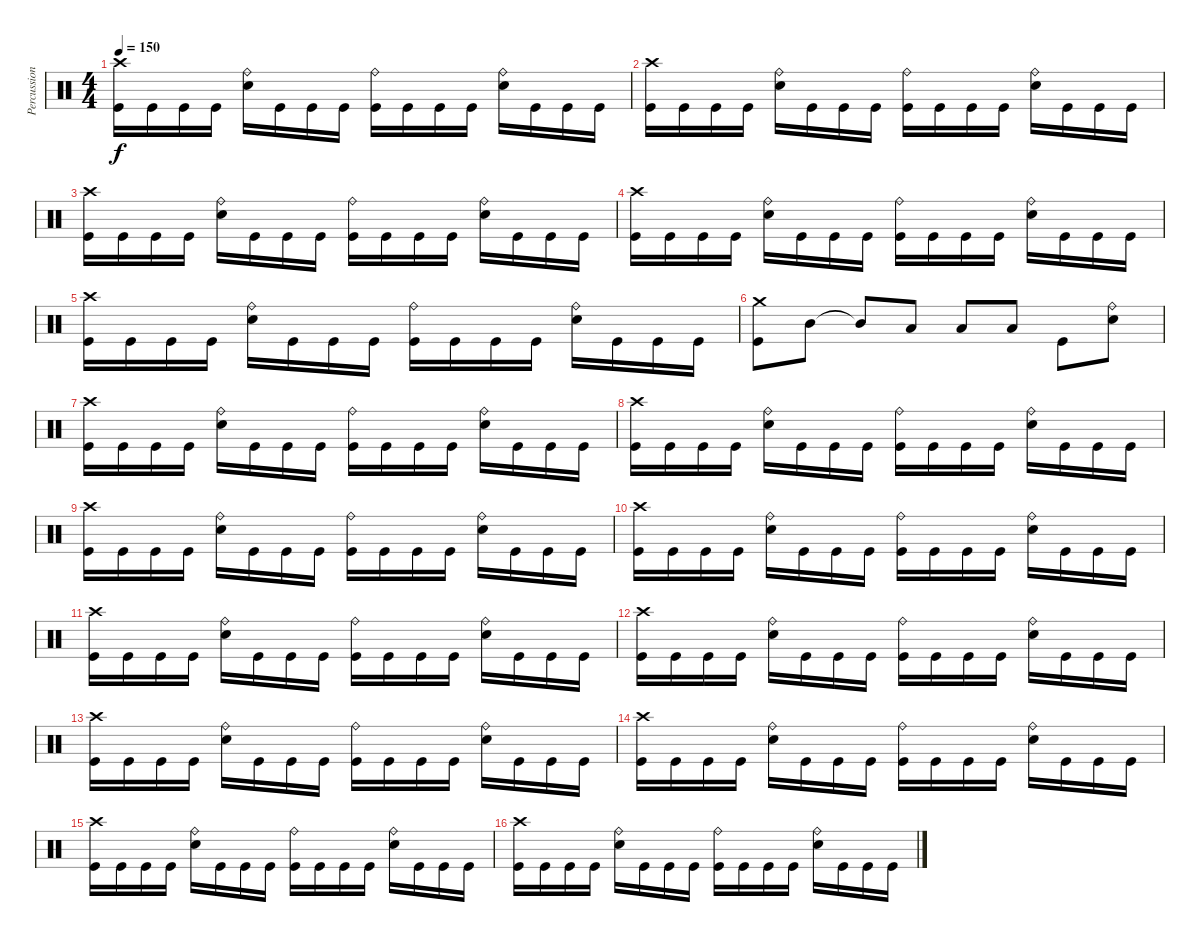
\track ("Percussions" "Percussion") {instrument percussion}
\staff {score}
\articulation defaults
\ts (4 4)
\tempo 150
\clef neutral
\ks c
("Kick (hit)" "Crash high (hit)").16{dy f} "Kick (hit)".16 "Kick (hit)".16 "Kick (hit)".16 ("Electric Snare (hit)" "Ride (bell)").16 "Kick (hit)".16 "Kick (hit)".16 "Kick (hit)".16 ("Kick (hit)" "Ride (bell)").16 "Kick (hit)".16 "Kick (hit)".16 "Kick (hit)".16 ("Electric Snare (hit)" "Ride (bell)").16 "Kick (hit)".16 "Kick (hit)".16 "Kick (hit)".16 |
("Kick (hit)" "Crash high (hit)").16 "Kick (hit)".16 "Kick (hit)".16 "Kick (hit)".16 ("Electric Snare (hit)" "Ride (bell)").16 "Kick (hit)".16 "Kick (hit)".16 "Kick (hit)".16 ("Kick (hit)" "Ride (bell)").16 "Kick (hit)".16 "Kick (hit)".16 "Kick (hit)".16 ("Electric Snare (hit)" "Ride (bell)").16 "Kick (hit)".16 "Kick (hit)".16 "Kick (hit)".16 |
("Kick (hit)" "Crash high (hit)").16 "Kick (hit)".16 "Kick (hit)".16 "Kick (hit)".16 ("Electric Snare (hit)" "Ride (bell)").16 "Kick (hit)".16 "Kick (hit)".16 "Kick (hit)".16 ("Kick (hit)" "Ride (bell)").16 "Kick (hit)".16 "Kick (hit)".16 "Kick (hit)".16 ("Electric Snare (hit)" "Ride (bell)").16 "Kick (hit)".16 "Kick (hit)".16 "Kick (hit)".16 |
("Kick (hit)" "Crash high (hit)").16 "Kick (hit)".16 "Kick (hit)".16 "Kick (hit)".16 ("Electric Snare (hit)" "Ride (bell)").16 "Kick (hit)".16 "Kick (hit)".16 "Kick (hit)".16 ("Kick (hit)" "Ride (bell)").16 "Kick (hit)".16 "Kick (hit)".16 "Kick (hit)".16 ("Electric Snare (hit)" "Ride (bell)").16 "Kick (hit)".16 "Kick (hit)".16 "Kick (hit)".16 |
("Kick (hit)" "Crash high (hit)").16 "Kick (hit)".16 "Kick (hit)".16 "Kick (hit)".16 ("Electric Snare (hit)" "Ride (bell)").16 "Kick (hit)".16 "Kick (hit)".16 "Kick (hit)".16 ("Kick (hit)" "Ride (bell)").16 "Kick (hit)".16 "Kick (hit)".16 "Kick (hit)".16 ("Electric Snare (hit)" "Ride (bell)").16 "Kick (hit)".16 "Kick (hit)".16 "Kick (hit)".16 |
("Kick (hit)" "Crash medium (hit)").8 "Mid Tom (hit)".8 "Mid Tom (hit)"{t}.8 "Low Tom (hit)".8 "Low Tom (hit)".8 "Low Tom (hit)".8 "Kick (hit)".8 ("Electric Snare (hit)" "Ride (bell)").8 |
("Kick (hit)" "Crash high (hit)").16 "Kick (hit)".16 "Kick (hit)".16 "Kick (hit)".16 ("Electric Snare (hit)" "Ride (bell)").16 "Kick (hit)".16 "Kick (hit)".16 "Kick (hit)".16 ("Kick (hit)" "Ride (bell)").16 "Kick (hit)".16 "Kick (hit)".16 "Kick (hit)".16 ("Electric Snare (hit)" "Ride (bell)").16 "Kick (hit)".16 "Kick (hit)".16 "Kick (hit)".16 |
("Kick (hit)" "Crash high (hit)").16 "Kick (hit)".16 "Kick (hit)".16 "Kick (hit)".16 ("Electric Snare (hit)" "Ride (bell)").16 "Kick (hit)".16 "Kick (hit)".16 "Kick (hit)".16 ("Kick (hit)" "Ride (bell)").16 "Kick (hit)".16 "Kick (hit)".16 "Kick (hit)".16 ("Electric Snare (hit)" "Ride (bell)").16 "Kick (hit)".16 "Kick (hit)".16 "Kick (hit)".16 |
("Kick (hit)" "Crash high (hit)").16 "Kick (hit)".16 "Kick (hit)".16 "Kick (hit)".16 ("Electric Snare (hit)" "Ride (bell)").16 "Kick (hit)".16 "Kick (hit)".16 "Kick (hit)".16 ("Kick (hit)" "Ride (bell)").16 "Kick (hit)".16 "Kick (hit)".16 "Kick (hit)".16 ("Electric Snare (hit)" "Ride (bell)").16 "Kick (hit)".16 "Kick (hit)".16 "Kick (hit)".16 |
("Kick (hit)" "Crash high (hit)").16 "Kick (hit)".16 "Kick (hit)".16 "Kick (hit)".16 ("Electric Snare (hit)" "Ride (bell)").16 "Kick (hit)".16 "Kick (hit)".16 "Kick (hit)".16 ("Kick (hit)" "Ride (bell)").16 "Kick (hit)".16 "Kick (hit)".16 "Kick (hit)".16 ("Electric Snare (hit)" "Ride (bell)").16 "Kick (hit)".16 "Kick (hit)".16 "Kick (hit)".16 |
("Kick (hit)" "Crash high (hit)").16 "Kick (hit)".16 "Kick (hit)".16 "Kick (hit)".16 ("Electric Snare (hit)" "Ride (bell)").16 "Kick (hit)".16 "Kick (hit)".16 "Kick (hit)".16 ("Kick (hit)" "Ride (bell)").16 "Kick (hit)".16 "Kick (hit)".16 "Kick (hit)".16 ("Electric Snare (hit)" "Ride (bell)").16 "Kick (hit)".16 "Kick (hit)".16 "Kick (hit)".16 |
("Kick (hit)" "Crash high (hit)").16 "Kick (hit)".16 "Kick (hit)".16 "Kick (hit)".16 ("Electric Snare (hit)" "Ride (bell)").16 "Kick (hit)".16 "Kick (hit)".16 "Kick (hit)".16 ("Kick (hit)" "Ride (bell)").16 "Kick (hit)".16 "Kick (hit)".16 "Kick (hit)".16 ("Electric Snare (hit)" "Ride (bell)").16 "Kick (hit)".16 "Kick (hit)".16 "Kick (hit)".16 |
("Kick (hit)" "Crash high (hit)").16 "Kick (hit)".16 "Kick (hit)".16 "Kick (hit)".16 ("Electric Snare (hit)" "Ride (bell)").16 "Kick (hit)".16 "Kick (hit)".16 "Kick (hit)".16 ("Kick (hit)" "Ride (bell)").16 "Kick (hit)".16 "Kick (hit)".16 "Kick (hit)".16 ("Electric Snare (hit)" "Ride (bell)").16 "Kick (hit)".16 "Kick (hit)".16 "Kick (hit)".16 |
("Kick (hit)" "Crash high (hit)").16 "Kick (hit)".16 "Kick (hit)".16 "Kick (hit)".16 ("Electric Snare (hit)" "Ride (bell)").16 "Kick (hit)".16 "Kick (hit)".16 "Kick (hit)".16 ("Kick (hit)" "Ride (bell)").16 "Kick (hit)".16 "Kick (hit)".16 "Kick (hit)".16 ("Electric Snare (hit)" "Ride (bell)").16 "Kick (hit)".16 "Kick (hit)".16 "Kick (hit)".16 |
("Kick (hit)" "Crash high (hit)").16 "Kick (hit)".16 "Kick (hit)".16 "Kick (hit)".16 ("Electric Snare (hit)" "Ride (bell)").16 "Kick (hit)".16 "Kick (hit)".16 "Kick (hit)".16 ("Kick (hit)" "Ride (bell)").16 "Kick (hit)".16 "Kick (hit)".16 "Kick (hit)".16 ("Electric Snare (hit)" "Ride (bell)").16 "Kick (hit)".16 "Kick (hit)".16 "Kick (hit)".16 |
("Kick (hit)" "Crash high (hit)").16 "Kick (hit)".16 "Kick (hit)".16 "Kick (hit)".16 ("Electric Snare (hit)" "Ride (bell)").16 "Kick (hit)".16 "Kick (hit)".16 "Kick (hit)".16 ("Kick (hit)" "Ride (bell)").16 "Kick (hit)".16 "Kick (hit)".16 "Kick (hit)".16 ("Electric Snare (hit)" "Ride (bell)").16 "Kick (hit)".16 "Kick (hit)".16 "Kick (hit)".16
